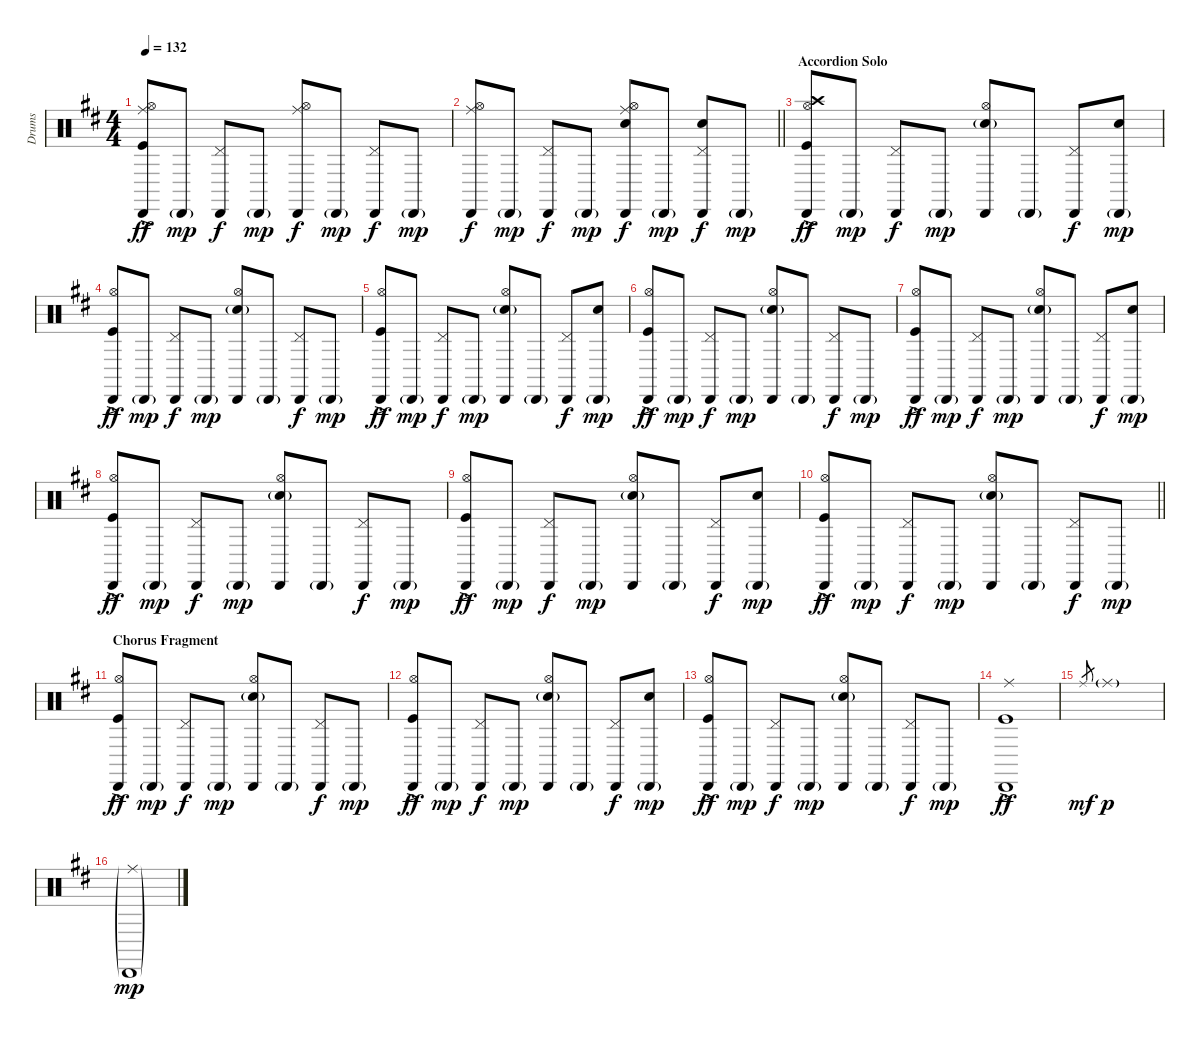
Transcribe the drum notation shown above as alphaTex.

\track ("Drums" "Drums") {instrument percussion}
\staff {score}
\articulation defaults
\ts (4 4)
\tempo 132
\clef neutral
\ks d
("Cabasa (hit)" "Hi-Hat (open)" "Ride (middle)" "Kick (hit)"{ac}).8{dy ff} "Cabasa (hit)"{g}.8{dy mp} ("Cabasa (hit)" "Pedal Hi-Hat (hit)").8{dy f} "Cabasa (hit)"{g}.8{dy mp} ("Cabasa (hit)" "Hi-Hat (open)" "Ride (middle)").8{dy f} "Cabasa (hit)"{g}.8{dy mp} ("Cabasa (hit)" "Pedal Hi-Hat (hit)").8{dy f} "Cabasa (hit)"{g}.8{dy mp} |
\barLineRight lightlight
("Cabasa (hit)" "Hi-Hat (open)" "Ride (middle)").8{dy f} "Cabasa (hit)"{g}.8{dy mp} ("Cabasa (hit)" "Pedal Hi-Hat (hit)").8{dy f} "Cabasa (hit)"{g}.8{dy mp} ("Cabasa (hit)" "Hi-Hat (open)" "Snare (hit) 2" "Ride (middle)").8{dy f} "Cabasa (hit)"{g}.8{dy mp} ("Cabasa (hit)" "Pedal Hi-Hat (hit)" "Snare (hit) 2").8{dy f} "Cabasa (hit)"{g}.8{dy mp} |
\section ("" "Accordion Solo")
("Cabasa (hit)" "Hi-Hat (open)" "Crash high (hit)" "Kick (hit)"{ac}).8{dy ff} "Cabasa (hit)"{g}.8{dy mp} ("Cabasa (hit)" "Pedal Hi-Hat (hit)").8{dy f} "Cabasa (hit)"{g}.8{dy mp} ("Cabasa (hit)" "Hi-Hat (open)" "Snare (hit) 2"{g}).8 "Cabasa (hit)"{g}.8 ("Cabasa (hit)" "Pedal Hi-Hat (hit)").8{dy f} ("Cabasa (hit)"{g} "Snare (hit) 2").8{dy mp} |
("Cabasa (hit)" "Hi-Hat (open)" "Kick (hit)"{ac}).8{dy ff} "Cabasa (hit)"{g}.8{dy mp} ("Cabasa (hit)" "Pedal Hi-Hat (hit)").8{dy f} "Cabasa (hit)"{g}.8{dy mp} ("Cabasa (hit)" "Hi-Hat (open)" "Snare (hit) 2"{g}).8 "Cabasa (hit)"{g}.8 ("Cabasa (hit)" "Pedal Hi-Hat (hit)").8{dy f} "Cabasa (hit)"{g}.8{dy mp} |
("Cabasa (hit)" "Hi-Hat (open)" "Kick (hit)"{ac}).8{dy ff} "Cabasa (hit)"{g}.8{dy mp} ("Cabasa (hit)" "Pedal Hi-Hat (hit)").8{dy f} "Cabasa (hit)"{g}.8{dy mp} ("Cabasa (hit)" "Hi-Hat (open)" "Snare (hit) 2"{g}).8 "Cabasa (hit)"{g}.8 ("Cabasa (hit)" "Pedal Hi-Hat (hit)").8{dy f} ("Cabasa (hit)"{g} "Snare (hit) 2").8{dy mp} |
("Cabasa (hit)" "Hi-Hat (open)" "Kick (hit)"{ac}).8{dy ff} "Cabasa (hit)"{g}.8{dy mp} ("Cabasa (hit)" "Pedal Hi-Hat (hit)").8{dy f} "Cabasa (hit)"{g}.8{dy mp} ("Cabasa (hit)" "Hi-Hat (open)" "Snare (hit) 2"{g}).8 "Cabasa (hit)"{g}.8 ("Cabasa (hit)" "Pedal Hi-Hat (hit)").8{dy f} "Cabasa (hit)"{g}.8{dy mp} |
("Cabasa (hit)" "Hi-Hat (open)" "Kick (hit)"{ac}).8{dy ff} "Cabasa (hit)"{g}.8{dy mp} ("Cabasa (hit)" "Pedal Hi-Hat (hit)").8{dy f} "Cabasa (hit)"{g}.8{dy mp} ("Cabasa (hit)" "Hi-Hat (open)" "Snare (hit) 2"{g}).8 "Cabasa (hit)"{g}.8 ("Cabasa (hit)" "Pedal Hi-Hat (hit)").8{dy f} ("Cabasa (hit)"{g} "Snare (hit) 2").8{dy mp} |
("Cabasa (hit)" "Hi-Hat (open)" "Kick (hit)"{ac}).8{dy ff} "Cabasa (hit)"{g}.8{dy mp} ("Cabasa (hit)" "Pedal Hi-Hat (hit)").8{dy f} "Cabasa (hit)"{g}.8{dy mp} ("Cabasa (hit)" "Hi-Hat (open)" "Snare (hit) 2"{g}).8 "Cabasa (hit)"{g}.8 ("Cabasa (hit)" "Pedal Hi-Hat (hit)").8{dy f} "Cabasa (hit)"{g}.8{dy mp} |
("Cabasa (hit)" "Hi-Hat (open)" "Kick (hit)"{ac}).8{dy ff} "Cabasa (hit)"{g}.8{dy mp} ("Cabasa (hit)" "Pedal Hi-Hat (hit)").8{dy f} "Cabasa (hit)"{g}.8{dy mp} ("Cabasa (hit)" "Hi-Hat (open)" "Snare (hit) 2"{g}).8 "Cabasa (hit)"{g}.8 ("Cabasa (hit)" "Pedal Hi-Hat (hit)").8{dy f} ("Cabasa (hit)"{g} "Snare (hit) 2").8{dy mp} |
\barLineRight lightlight
("Cabasa (hit)" "Hi-Hat (open)" "Kick (hit)"{ac}).8{dy ff} "Cabasa (hit)"{g}.8{dy mp} ("Cabasa (hit)" "Pedal Hi-Hat (hit)").8{dy f} "Cabasa (hit)"{g}.8{dy mp} ("Cabasa (hit)" "Hi-Hat (open)" "Snare (hit) 2"{g}).8 "Cabasa (hit)"{g}.8 ("Cabasa (hit)" "Pedal Hi-Hat (hit)").8{dy f} "Cabasa (hit)"{g}.8{dy mp} |
\section ("" "Chorus Fragment")
("Cabasa (hit)" "Hi-Hat (open)" "Kick (hit)"{ac}).8{dy ff} "Cabasa (hit)"{g}.8{dy mp} ("Cabasa (hit)" "Pedal Hi-Hat (hit)").8{dy f} "Cabasa (hit)"{g}.8{dy mp} ("Cabasa (hit)" "Hi-Hat (open)" "Snare (hit) 2"{g}).8 "Cabasa (hit)"{g}.8 ("Cabasa (hit)" "Pedal Hi-Hat (hit)").8{dy f} "Cabasa (hit)"{g}.8{dy mp} |
("Cabasa (hit)" "Hi-Hat (open)" "Kick (hit)"{ac}).8{dy ff} "Cabasa (hit)"{g}.8{dy mp} ("Cabasa (hit)" "Pedal Hi-Hat (hit)").8{dy f} "Cabasa (hit)"{g}.8{dy mp} ("Cabasa (hit)" "Hi-Hat (open)" "Snare (hit) 2"{g}).8 "Cabasa (hit)"{g}.8 ("Cabasa (hit)" "Pedal Hi-Hat (hit)").8{dy f} ("Cabasa (hit)"{g} "Snare (hit) 2").8{dy mp} |
("Cabasa (hit)" "Hi-Hat (open)" "Kick (hit)"{ac}).8{dy ff} "Cabasa (hit)"{g}.8{dy mp} ("Cabasa (hit)" "Pedal Hi-Hat (hit)").8{dy f} "Cabasa (hit)"{g}.8{dy mp} ("Cabasa (hit)" "Hi-Hat (open)" "Snare (hit) 2"{g}).8 "Cabasa (hit)"{g}.8 ("Cabasa (hit)" "Pedal Hi-Hat (hit)").8{dy f} "Cabasa (hit)"{g}.8{dy mp} |
("Cabasa (hit)" "Ride (middle)" "Kick (hit)"{ac}).1{dy ff} |
"Ride (middle)".8{gr dy mf} "Ride (middle)"{g}.1{dy p} |
("Cabasa (hit)"{g} "Ride (middle)"{g}).1{dy mp}
